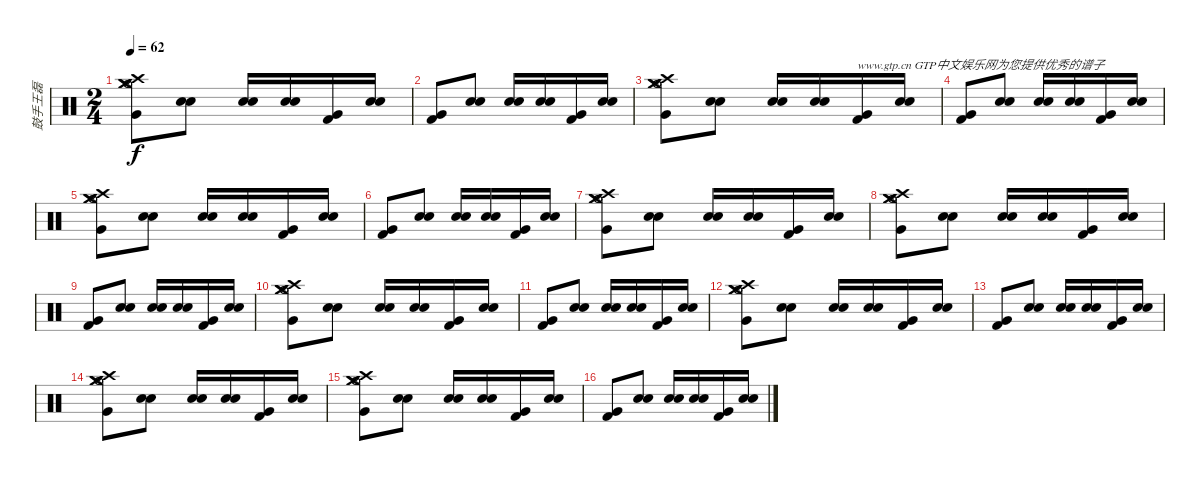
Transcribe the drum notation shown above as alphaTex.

\track ("鼓手王磊" "鼓手王磊") {instrument percussion}
\staff {score}
\articulation defaults
\ts (2 4)
\tempo 62
\clef neutral
\ks c
("Crash medium (hit)" "Crash medium (hit)" "Very Low Tom (hit)" "Crash high (hit)" "Hi-Hat (open)" "Hi-Hat (open)").8{dy f} ("Electric Snare (hit)" "Electric Snare (hit)").8 ("Electric Snare (hit)" "Electric Snare (hit)").16 ("Electric Snare (hit)" "Electric Snare (hit)").16 ("Very Low Tom (hit)" "Kick (hit) 2").16 ("Electric Snare (hit)" "Electric Snare (hit)").16 |
("Very Low Tom (hit)" "Kick (hit) 2").8 ("Electric Snare (hit)" "Electric Snare (hit)").8 ("Electric Snare (hit)" "Electric Snare (hit)").16 ("Electric Snare (hit)" "Electric Snare (hit)").16 ("Very Low Tom (hit)" "Kick (hit) 2").16 ("Electric Snare (hit)" "Electric Snare (hit)").16 |
("Crash medium (hit)" "Crash medium (hit)" "Very Low Tom (hit)" "Crash high (hit)" "Hi-Hat (open)" "Hi-Hat (open)").8 ("Electric Snare (hit)" "Electric Snare (hit)").8 ("Electric Snare (hit)" "Electric Snare (hit)").16 ("Electric Snare (hit)" "Electric Snare (hit)").16 ("Very Low Tom (hit)" "Kick (hit) 2").16{txt "www.gtp.cn GTP中文娱乐网为您提供优秀的谱子"} ("Electric Snare (hit)" "Electric Snare (hit)").16 |
("Very Low Tom (hit)" "Kick (hit) 2").8 ("Electric Snare (hit)" "Electric Snare (hit)").8 ("Electric Snare (hit)" "Electric Snare (hit)").16 ("Electric Snare (hit)" "Electric Snare (hit)").16 ("Very Low Tom (hit)" "Kick (hit) 2").16 ("Electric Snare (hit)" "Electric Snare (hit)").16 |
("Crash medium (hit)" "Crash medium (hit)" "Very Low Tom (hit)" "Crash high (hit)" "Hi-Hat (open)" "Hi-Hat (open)").8 ("Electric Snare (hit)" "Electric Snare (hit)").8 ("Electric Snare (hit)" "Electric Snare (hit)").16 ("Electric Snare (hit)" "Electric Snare (hit)").16 ("Very Low Tom (hit)" "Kick (hit) 2").16 ("Electric Snare (hit)" "Electric Snare (hit)").16 |
("Very Low Tom (hit)" "Kick (hit) 2").8 ("Electric Snare (hit)" "Electric Snare (hit)").8 ("Electric Snare (hit)" "Electric Snare (hit)").16 ("Electric Snare (hit)" "Electric Snare (hit)").16 ("Very Low Tom (hit)" "Kick (hit) 2").16 ("Electric Snare (hit)" "Electric Snare (hit)").16 |
("Crash medium (hit)" "Crash medium (hit)" "Very Low Tom (hit)" "Crash high (hit)" "Hi-Hat (open)" "Hi-Hat (open)").8 ("Electric Snare (hit)" "Electric Snare (hit)").8 ("Electric Snare (hit)" "Electric Snare (hit)").16 ("Electric Snare (hit)" "Electric Snare (hit)").16 ("Very Low Tom (hit)" "Kick (hit) 2").16 ("Electric Snare (hit)" "Electric Snare (hit)").16 |
("Crash medium (hit)" "Crash medium (hit)" "Very Low Tom (hit)" "Crash high (hit)" "Hi-Hat (open)" "Hi-Hat (open)").8 ("Electric Snare (hit)" "Electric Snare (hit)").8 ("Electric Snare (hit)" "Electric Snare (hit)").16 ("Electric Snare (hit)" "Electric Snare (hit)").16 ("Very Low Tom (hit)" "Kick (hit) 2").16 ("Electric Snare (hit)" "Electric Snare (hit)").16 |
("Very Low Tom (hit)" "Kick (hit) 2").8 ("Electric Snare (hit)" "Electric Snare (hit)").8 ("Electric Snare (hit)" "Electric Snare (hit)").16 ("Electric Snare (hit)" "Electric Snare (hit)").16 ("Very Low Tom (hit)" "Kick (hit) 2").16 ("Electric Snare (hit)" "Electric Snare (hit)").16 |
("Crash medium (hit)" "Crash medium (hit)" "Very Low Tom (hit)" "Crash high (hit)" "Hi-Hat (open)" "Hi-Hat (open)").8 ("Electric Snare (hit)" "Electric Snare (hit)").8 ("Electric Snare (hit)" "Electric Snare (hit)").16 ("Electric Snare (hit)" "Electric Snare (hit)").16 ("Very Low Tom (hit)" "Kick (hit) 2").16 ("Electric Snare (hit)" "Electric Snare (hit)").16 |
("Very Low Tom (hit)" "Kick (hit) 2").8 ("Electric Snare (hit)" "Electric Snare (hit)").8 ("Electric Snare (hit)" "Electric Snare (hit)").16 ("Electric Snare (hit)" "Electric Snare (hit)").16 ("Very Low Tom (hit)" "Kick (hit) 2").16 ("Electric Snare (hit)" "Electric Snare (hit)").16 |
("Crash medium (hit)" "Crash medium (hit)" "Very Low Tom (hit)" "Crash high (hit)" "Hi-Hat (open)" "Hi-Hat (open)").8 ("Electric Snare (hit)" "Electric Snare (hit)").8 ("Electric Snare (hit)" "Electric Snare (hit)").16 ("Electric Snare (hit)" "Electric Snare (hit)").16 ("Very Low Tom (hit)" "Kick (hit) 2").16 ("Electric Snare (hit)" "Electric Snare (hit)").16 |
("Very Low Tom (hit)" "Kick (hit) 2").8 ("Electric Snare (hit)" "Electric Snare (hit)").8 ("Electric Snare (hit)" "Electric Snare (hit)").16 ("Electric Snare (hit)" "Electric Snare (hit)").16 ("Very Low Tom (hit)" "Kick (hit) 2").16 ("Electric Snare (hit)" "Electric Snare (hit)").16 |
("Crash medium (hit)" "Crash medium (hit)" "Very Low Tom (hit)" "Crash high (hit)" "Hi-Hat (open)" "Hi-Hat (open)").8 ("Electric Snare (hit)" "Electric Snare (hit)").8 ("Electric Snare (hit)" "Electric Snare (hit)").16 ("Electric Snare (hit)" "Electric Snare (hit)").16 ("Very Low Tom (hit)" "Kick (hit) 2").16 ("Electric Snare (hit)" "Electric Snare (hit)").16 |
("Crash medium (hit)" "Crash medium (hit)" "Very Low Tom (hit)" "Crash high (hit)" "Hi-Hat (open)" "Hi-Hat (open)").8 ("Electric Snare (hit)" "Electric Snare (hit)").8 ("Electric Snare (hit)" "Electric Snare (hit)").16 ("Electric Snare (hit)" "Electric Snare (hit)").16 ("Very Low Tom (hit)" "Kick (hit) 2").16 ("Electric Snare (hit)" "Electric Snare (hit)").16 |
("Very Low Tom (hit)" "Kick (hit) 2").8 ("Electric Snare (hit)" "Electric Snare (hit)").8 ("Electric Snare (hit)" "Electric Snare (hit)").16 ("Electric Snare (hit)" "Electric Snare (hit)").16 ("Very Low Tom (hit)" "Kick (hit) 2").16 ("Electric Snare (hit)" "Electric Snare (hit)").16
